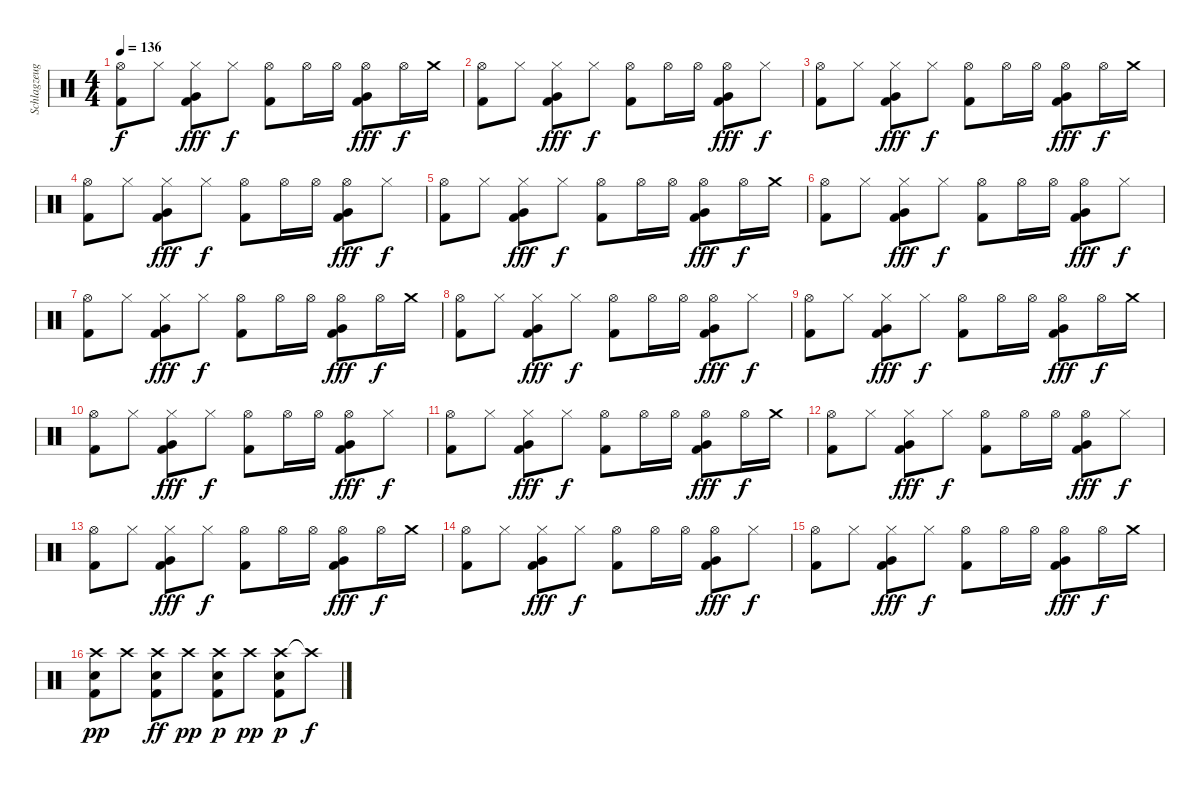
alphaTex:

\track ("Schlagzeug - der Hund Marie" "Schlagzeug") {instrument percussion}
\staff {score}
\articulation defaults
\ts (4 4)
\tempo 136
\clef neutral
\ks c
("Hi-Hat (open)" "Kick (hit) 2").8{dy f} "Hi-Hat (closed)".8 ("Hi-Hat (closed)" "Very Low Tom (hit)" "Kick (hit) 2").8{dy fff} "Hi-Hat (closed)".8{dy f} ("Hi-Hat (open)" "Kick (hit) 2").8 "Hi-Hat (open)".16 "Hi-Hat (open)".16 ("Hi-Hat (open)" "Very Low Tom (hit)" "Kick (hit) 2").8{dy fff} "Hi-Hat (open)".16{dy f} "Crash medium (hit)".16 |
("Hi-Hat (open)" "Kick (hit) 2").8 "Hi-Hat (closed)".8 ("Hi-Hat (closed)" "Very Low Tom (hit)" "Kick (hit) 2").8{dy fff} "Hi-Hat (closed)".8{dy f} ("Hi-Hat (open)" "Kick (hit) 2").8 "Hi-Hat (open)".16 "Hi-Hat (open)".16 ("Hi-Hat (open)" "Very Low Tom (hit)" "Kick (hit) 2").8{dy fff} "Hi-Hat (closed)".8{dy f} |
("Hi-Hat (open)" "Kick (hit) 2").8 "Hi-Hat (closed)".8 ("Hi-Hat (closed)" "Very Low Tom (hit)" "Kick (hit) 2").8{dy fff} "Hi-Hat (closed)".8{dy f} ("Hi-Hat (open)" "Kick (hit) 2").8 "Hi-Hat (open)".16 "Hi-Hat (open)".16 ("Hi-Hat (open)" "Very Low Tom (hit)" "Kick (hit) 2").8{dy fff} "Hi-Hat (open)".16{dy f} "Crash medium (hit)".16 |
("Hi-Hat (open)" "Kick (hit) 2").8 "Hi-Hat (closed)".8 ("Hi-Hat (closed)" "Very Low Tom (hit)" "Kick (hit) 2").8{dy fff} "Hi-Hat (closed)".8{dy f} ("Hi-Hat (open)" "Kick (hit) 2").8 "Hi-Hat (open)".16 "Hi-Hat (open)".16 ("Hi-Hat (open)" "Very Low Tom (hit)" "Kick (hit) 2").8{dy fff} "Hi-Hat (closed)".8{dy f} |
("Hi-Hat (open)" "Kick (hit) 2").8 "Hi-Hat (closed)".8 ("Hi-Hat (closed)" "Very Low Tom (hit)" "Kick (hit) 2").8{dy fff} "Hi-Hat (closed)".8{dy f} ("Hi-Hat (open)" "Kick (hit) 2").8 "Hi-Hat (open)".16 "Hi-Hat (open)".16 ("Hi-Hat (open)" "Very Low Tom (hit)" "Kick (hit) 2").8{dy fff} "Hi-Hat (open)".16{dy f} "Crash medium (hit)".16 |
("Hi-Hat (open)" "Kick (hit) 2").8 "Hi-Hat (closed)".8 ("Hi-Hat (closed)" "Very Low Tom (hit)" "Kick (hit) 2").8{dy fff} "Hi-Hat (closed)".8{dy f} ("Hi-Hat (open)" "Kick (hit) 2").8 "Hi-Hat (open)".16 "Hi-Hat (open)".16 ("Hi-Hat (open)" "Very Low Tom (hit)" "Kick (hit) 2").8{dy fff} "Hi-Hat (closed)".8{dy f} |
("Hi-Hat (open)" "Kick (hit) 2").8 "Hi-Hat (closed)".8 ("Hi-Hat (closed)" "Very Low Tom (hit)" "Kick (hit) 2").8{dy fff} "Hi-Hat (closed)".8{dy f} ("Hi-Hat (open)" "Kick (hit) 2").8 "Hi-Hat (open)".16 "Hi-Hat (open)".16 ("Hi-Hat (open)" "Very Low Tom (hit)" "Kick (hit) 2").8{dy fff} "Hi-Hat (open)".16{dy f} "Crash medium (hit)".16 |
("Hi-Hat (open)" "Kick (hit) 2").8 "Hi-Hat (closed)".8 ("Hi-Hat (closed)" "Very Low Tom (hit)" "Kick (hit) 2").8{dy fff} "Hi-Hat (closed)".8{dy f} ("Hi-Hat (open)" "Kick (hit) 2").8 "Hi-Hat (open)".16 "Hi-Hat (open)".16 ("Hi-Hat (open)" "Very Low Tom (hit)" "Kick (hit) 2").8{dy fff} "Hi-Hat (closed)".8{dy f} |
("Hi-Hat (open)" "Kick (hit) 2").8 "Hi-Hat (closed)".8 ("Hi-Hat (closed)" "Very Low Tom (hit)" "Kick (hit) 2").8{dy fff} "Hi-Hat (closed)".8{dy f} ("Hi-Hat (open)" "Kick (hit) 2").8 "Hi-Hat (open)".16 "Hi-Hat (open)".16 ("Hi-Hat (open)" "Very Low Tom (hit)" "Kick (hit) 2").8{dy fff} "Hi-Hat (open)".16{dy f} "Crash medium (hit)".16 |
("Hi-Hat (open)" "Kick (hit) 2").8 "Hi-Hat (closed)".8 ("Hi-Hat (closed)" "Very Low Tom (hit)" "Kick (hit) 2").8{dy fff} "Hi-Hat (closed)".8{dy f} ("Hi-Hat (open)" "Kick (hit) 2").8 "Hi-Hat (open)".16 "Hi-Hat (open)".16 ("Hi-Hat (open)" "Very Low Tom (hit)" "Kick (hit) 2").8{dy fff} "Hi-Hat (closed)".8{dy f} |
("Hi-Hat (open)" "Kick (hit) 2").8 "Hi-Hat (closed)".8 ("Hi-Hat (closed)" "Very Low Tom (hit)" "Kick (hit) 2").8{dy fff} "Hi-Hat (closed)".8{dy f} ("Hi-Hat (open)" "Kick (hit) 2").8 "Hi-Hat (open)".16 "Hi-Hat (open)".16 ("Hi-Hat (open)" "Very Low Tom (hit)" "Kick (hit) 2").8{dy fff} "Hi-Hat (open)".16{dy f} "Crash medium (hit)".16 |
("Hi-Hat (open)" "Kick (hit) 2").8 "Hi-Hat (closed)".8 ("Hi-Hat (closed)" "Very Low Tom (hit)" "Kick (hit) 2").8{dy fff} "Hi-Hat (closed)".8{dy f} ("Hi-Hat (open)" "Kick (hit) 2").8 "Hi-Hat (open)".16 "Hi-Hat (open)".16 ("Hi-Hat (open)" "Very Low Tom (hit)" "Kick (hit) 2").8{dy fff} "Hi-Hat (closed)".8{dy f} |
("Hi-Hat (open)" "Kick (hit) 2").8 "Hi-Hat (closed)".8 ("Hi-Hat (closed)" "Very Low Tom (hit)" "Kick (hit) 2").8{dy fff} "Hi-Hat (closed)".8{dy f} ("Hi-Hat (open)" "Kick (hit) 2").8 "Hi-Hat (open)".16 "Hi-Hat (open)".16 ("Hi-Hat (open)" "Very Low Tom (hit)" "Kick (hit) 2").8{dy fff} "Hi-Hat (open)".16{dy f} "Crash medium (hit)".16 |
("Hi-Hat (open)" "Kick (hit) 2").8 "Hi-Hat (closed)".8 ("Hi-Hat (closed)" "Very Low Tom (hit)" "Kick (hit) 2").8{dy fff} "Hi-Hat (closed)".8{dy f} ("Hi-Hat (open)" "Kick (hit) 2").8 "Hi-Hat (open)".16 "Hi-Hat (open)".16 ("Hi-Hat (open)" "Very Low Tom (hit)" "Kick (hit) 2").8{dy fff} "Hi-Hat (closed)".8{dy f} |
("Hi-Hat (open)" "Kick (hit) 2").8 "Hi-Hat (closed)".8 ("Hi-Hat (closed)" "Very Low Tom (hit)" "Kick (hit) 2").8{dy fff} "Hi-Hat (closed)".8{dy f} ("Hi-Hat (open)" "Kick (hit) 2").8 "Hi-Hat (open)".16 "Hi-Hat (open)".16 ("Hi-Hat (open)" "Very Low Tom (hit)" "Kick (hit) 2").8{dy fff} "Hi-Hat (open)".16{dy f} "Crash medium (hit)".16 |
("Crash high (hit)" "Snare (hit) 2" "Kick (hit) 2").8{dy pp} "Crash high (hit)".8 ("Crash high (hit)" "Snare (hit) 2" "Kick (hit) 2").8{dy ff} "Crash high (hit)".8{dy pp} ("Crash high (hit)" "Snare (hit) 2" "Kick (hit) 2").8{dy p} "Crash high (hit)".8{dy pp} ("Crash high (hit)" "Snare (hit) 2" "Kick (hit) 2").8{dy p} "Crash high (hit)"{t}.8{dy f}
